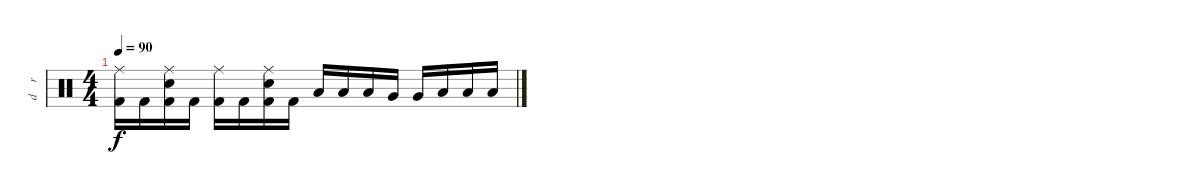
\track ("d    r    u    m    s" "d    r    ") {instrument percussion}
\staff {score}
\articulation defaults
\ts (4 4)
\tempo 90
\clef neutral
\ks c
("Ride (middle)" "Kick (hit) 2").16{dy f} "Kick (hit) 2".16 ("Ride (middle)" "Electric Snare (hit)" "Kick (hit) 2").16 "Kick (hit) 2".16 ("Ride (middle)" "Kick (hit) 2").16 "Kick (hit) 2".16 ("Ride (middle)" "Electric Snare (hit)" "Kick (hit) 2").16 "Kick (hit) 2".16 "Low Tom (hit)".16 "Low Tom (hit)".16 "Low Tom (hit)".16 "Very Low Tom (hit)".16 "Very Low Tom (hit)".16 "Low Floor Tom (hit)".16 "Low Floor Tom (hit)".16 "Low Floor Tom (hit)".16
